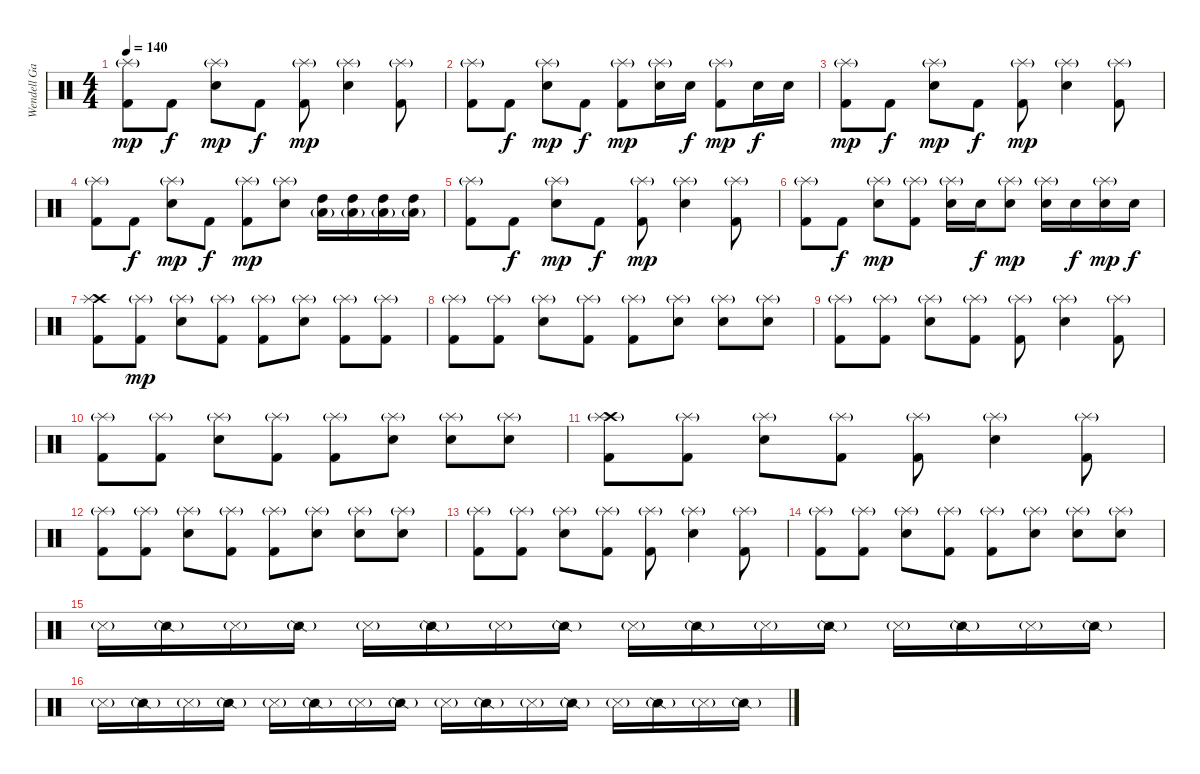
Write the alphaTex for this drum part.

\track ("Wendell Garcia(Drums)" "Wendell Ga") {instrument percussion}
\staff {score}
\articulation defaults
\ts (4 4)
\tempo 140
\clef neutral
\ks c
("Splash (hit)"{g} "Kick (hit) 2").8{dy mp} "Kick (hit) 2".8{dy f} ("Splash (hit)"{g} "Electric Snare (hit)").8{dy mp} "Kick (hit) 2".8{dy f} ("Splash (hit)"{g} "Kick (hit) 2").8{dy mp} ("Splash (hit)"{g} "Electric Snare (hit)").4 ("Splash (hit)"{g} "Kick (hit) 2").8 |
("Splash (hit)"{g} "Kick (hit) 2").8 "Kick (hit) 2".8{dy f} ("Splash (hit)"{g} "Electric Snare (hit)").8{dy mp} "Kick (hit) 2".8{dy f} ("Splash (hit)"{g} "Kick (hit) 2").8{dy mp} ("Splash (hit)"{g} "Electric Snare (hit)").16 "Electric Snare (hit)".16{dy f} ("Splash (hit)"{g} "Kick (hit) 2").8{dy mp} "Electric Snare (hit)".16{dy f} "Electric Snare (hit)".16 |
("Splash (hit)"{g} "Kick (hit) 2").8{dy mp} "Kick (hit) 2".8{dy f} ("Splash (hit)"{g} "Electric Snare (hit)").8{dy mp} "Kick (hit) 2".8{dy f} ("Splash (hit)"{g} "Kick (hit) 2").8{dy mp} ("Splash (hit)"{g} "Electric Snare (hit)").4 ("Splash (hit)"{g} "Kick (hit) 2").8 |
("Splash (hit)"{g} "Kick (hit) 2").8 "Kick (hit) 2".8{dy f} ("Splash (hit)"{g} "Electric Snare (hit)").8{dy mp} "Kick (hit) 2".8{dy f} ("Splash (hit)"{g} "Kick (hit) 2").8{dy mp} ("Splash (hit)"{g} "Electric Snare (hit)").8 ("High Tom (hit)" "Low Tom (hit)"{g}).16 ("High Tom (hit)" "Low Tom (hit)"{g}).16 ("High Tom (hit)" "Low Tom (hit)"{g}).16 ("High Tom (hit)" "Low Tom (hit)"{g}).16 |
("Splash (hit)"{g} "Kick (hit) 2").8 "Kick (hit) 2".8{dy f} ("Splash (hit)"{g} "Electric Snare (hit)").8{dy mp} "Kick (hit) 2".8{dy f} ("Splash (hit)"{g} "Kick (hit) 2").8{dy mp} ("Splash (hit)"{g} "Electric Snare (hit)").4 ("Splash (hit)"{g} "Kick (hit) 2").8 |
("Splash (hit)"{g} "Kick (hit) 2").8 "Kick (hit) 2".8{dy f} ("Splash (hit)"{g} "Electric Snare (hit)").8{dy mp} ("Splash (hit)"{g} "Kick (hit) 2").8 ("Splash (hit)"{g} "Electric Snare (hit)").16 "Electric Snare (hit)".16{dy f} ("Splash (hit)"{g} "Electric Snare (hit)").8{dy mp} ("Splash (hit)"{g} "Electric Snare (hit)").16 "Electric Snare (hit)".16{dy f} ("Splash (hit)"{g} "Electric Snare (hit)").16{dy mp} "Electric Snare (hit)".16{dy f} |
("Crash high (hit)" "Splash (hit)" "Kick (hit) 2").8 ("Splash (hit)"{g} "Kick (hit) 2").8{dy mp} ("Splash (hit)"{g} "Electric Snare (hit)").8 ("Splash (hit)"{g} "Kick (hit) 2").8 ("Splash (hit)"{g} "Kick (hit) 2").8 ("Splash (hit)"{g} "Electric Snare (hit)").8 ("Splash (hit)"{g} "Kick (hit) 2").8 ("Splash (hit)"{g} "Kick (hit) 2").8 |
("Splash (hit)"{g} "Kick (hit) 2").8 ("Splash (hit)"{g} "Kick (hit) 2").8 ("Splash (hit)"{g} "Electric Snare (hit)").8 ("Splash (hit)"{g} "Kick (hit) 2").8 ("Splash (hit)"{g} "Kick (hit) 2").8 ("Splash (hit)"{g} "Electric Snare (hit)").8 ("Splash (hit)"{g} "Electric Snare (hit)").8 ("Splash (hit)"{g} "Electric Snare (hit)").8 |
("Splash (hit)"{g} "Kick (hit) 2").8 ("Splash (hit)"{g} "Kick (hit) 2").8 ("Splash (hit)"{g} "Electric Snare (hit)").8 ("Splash (hit)"{g} "Kick (hit) 2").8 ("Splash (hit)"{g} "Kick (hit) 2").8 ("Splash (hit)"{g} "Electric Snare (hit)").4 ("Splash (hit)"{g} "Kick (hit) 2").8 |
("Splash (hit)"{g} "Kick (hit) 2").8 ("Splash (hit)"{g} "Kick (hit) 2").8 ("Splash (hit)"{g} "Electric Snare (hit)").8 ("Splash (hit)"{g} "Kick (hit) 2").8 ("Splash (hit)"{g} "Kick (hit) 2").8 ("Splash (hit)"{g} "Electric Snare (hit)").8 ("Splash (hit)"{g} "Electric Snare (hit)").8 ("Splash (hit)"{g} "Electric Snare (hit)").8 |
("Crash high (hit)"{g} "Splash (hit)"{g} "Kick (hit) 2").8 ("Splash (hit)"{g} "Kick (hit) 2").8 ("Splash (hit)"{g} "Electric Snare (hit)").8 ("Splash (hit)"{g} "Kick (hit) 2").8 ("Splash (hit)"{g} "Kick (hit) 2").8 ("Splash (hit)"{g} "Electric Snare (hit)").4 ("Splash (hit)"{g} "Kick (hit) 2").8 |
("Splash (hit)"{g} "Kick (hit) 2").8 ("Splash (hit)"{g} "Kick (hit) 2").8 ("Splash (hit)"{g} "Electric Snare (hit)").8 ("Splash (hit)"{g} "Kick (hit) 2").8 ("Splash (hit)"{g} "Kick (hit) 2").8 ("Splash (hit)"{g} "Electric Snare (hit)").8 ("Splash (hit)"{g} "Electric Snare (hit)").8 ("Splash (hit)"{g} "Electric Snare (hit)").8 |
("Splash (hit)"{g} "Kick (hit) 2").8 ("Splash (hit)"{g} "Kick (hit) 2").8 ("Splash (hit)"{g} "Electric Snare (hit)").8 ("Splash (hit)"{g} "Kick (hit) 2").8 ("Splash (hit)"{g} "Kick (hit) 2").8 ("Splash (hit)"{g} "Electric Snare (hit)").4 ("Splash (hit)"{g} "Kick (hit) 2").8 |
("Splash (hit)"{g} "Kick (hit) 2").8 ("Splash (hit)"{g} "Kick (hit) 2").8 ("Splash (hit)"{g} "Electric Snare (hit)").8 ("Splash (hit)"{g} "Kick (hit) 2").8 ("Splash (hit)"{g} "Kick (hit) 2").8 ("Splash (hit)"{g} "Electric Snare (hit)").8 ("Splash (hit)"{g} "Electric Snare (hit)").8 ("Splash (hit)"{g} "Electric Snare (hit)").8 |
"Snare (side stick) 3"{g}.16 "Snare (side stick) 2"{g}.16 "Snare (side stick) 3"{g}.16 "Snare (side stick) 2"{g}.16 "Snare (side stick) 3"{g}.16 "Snare (side stick) 2"{g}.16 "Snare (side stick) 3"{g}.16 "Snare (side stick) 2"{g}.16 "Snare (side stick) 3"{g}.16 "Snare (side stick) 2"{g}.16 "Snare (side stick) 3"{g}.16 "Snare (side stick) 2"{g}.16 "Snare (side stick) 3"{g}.16 "Snare (side stick) 2"{g}.16 "Snare (side stick) 3"{g}.16 "Snare (side stick) 2"{g}.16 |
"Snare (side stick) 3"{g}.16 "Snare (side stick) 2"{g}.16 "Snare (side stick) 3"{g}.16 "Snare (side stick) 2"{g}.16 "Snare (side stick) 3"{g}.16 "Snare (side stick) 2"{g}.16 "Snare (side stick) 3"{g}.16 "Snare (side stick) 2"{g}.16 "Snare (side stick) 3"{g}.16 "Snare (side stick) 2"{g}.16 "Snare (side stick) 3"{g}.16 "Snare (side stick) 2"{g}.16 "Snare (side stick) 3"{g}.16 "Snare (side stick) 2"{g}.16 "Snare (side stick) 3"{g}.16 "Snare (side stick) 2"{g}.16
